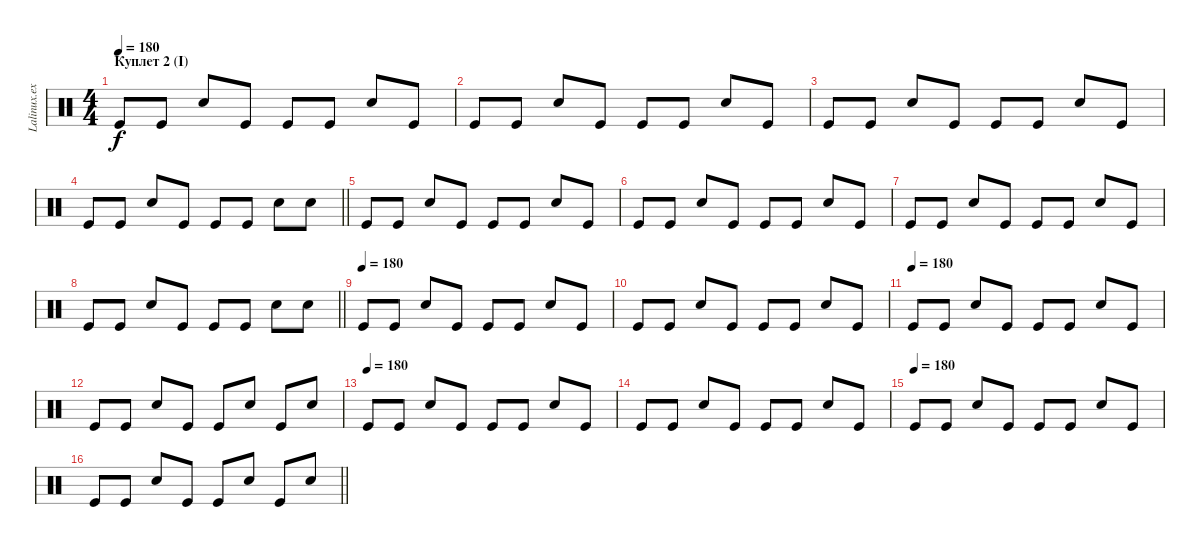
\track ("Lalinux.exe" "Lalinux.ex") {instrument percussion}
\staff {score}
\articulation defaults
\ts (4 4)
\section ("" "Куплет 2 (I)")
\tempo 180
\clef neutral
\ks c "Kick (hit)".8{dy f} "Kick (hit)".8 "Electric Snare (hit)".8 "Kick (hit)".8 "Kick (hit)".8 "Kick (hit)".8 "Electric Snare (hit)".8 "Kick (hit)".8
|
"Kick (hit)".8 "Kick (hit)".8 "Electric Snare (hit)".8 "Kick (hit)".8 "Kick (hit)".8 "Kick (hit)".8 "Electric Snare (hit)".8 "Kick (hit)".8 |
"Kick (hit)".8 "Kick (hit)".8 "Electric Snare (hit)".8 "Kick (hit)".8 "Kick (hit)".8 "Kick (hit)".8 "Electric Snare (hit)".8 "Kick (hit)".8 |
\barLineRight lightlight "Kick (hit)".8 "Kick (hit)".8 "Electric Snare (hit)".8 "Kick (hit)".8 "Kick (hit)".8 "Kick (hit)".8 "Electric Snare (hit)".8 "Electric Snare (hit)".8
|
"Kick (hit)".8 "Kick (hit)".8 "Electric Snare (hit)".8 "Kick (hit)".8 "Kick (hit)".8 "Kick (hit)".8 "Electric Snare (hit)".8 "Kick (hit)".8 |
"Kick (hit)".8 "Kick (hit)".8 "Electric Snare (hit)".8 "Kick (hit)".8 "Kick (hit)".8 "Kick (hit)".8 "Electric Snare (hit)".8 "Kick (hit)".8 |
"Kick (hit)".8 "Kick (hit)".8 "Electric Snare (hit)".8 "Kick (hit)".8 "Kick (hit)".8 "Kick (hit)".8 "Electric Snare (hit)".8 "Kick (hit)".8 |
\barLineRight lightlight "Kick (hit)".8 "Kick (hit)".8 "Electric Snare (hit)".8 "Kick (hit)".8 "Kick (hit)".8 "Kick (hit)".8 "Electric Snare (hit)".8 "Electric Snare (hit)".8
|
\section ("" "")
\tempo (180)
"Kick (hit)".8 "Kick (hit)".8 "Electric Snare (hit)".8 "Kick (hit)".8 "Kick (hit)".8 "Kick (hit)".8 "Electric Snare (hit)".8 "Kick (hit)".8 |
"Kick (hit)".8 "Kick (hit)".8 "Electric Snare (hit)".8 "Kick (hit)".8 "Kick (hit)".8 "Kick (hit)".8 "Electric Snare (hit)".8 "Kick (hit)".8 |
\tempo (180)
"Kick (hit)".8 "Kick (hit)".8 "Electric Snare (hit)".8 "Kick (hit)".8 "Kick (hit)".8 "Kick (hit)".8 "Electric Snare (hit)".8 "Kick (hit)".8 |
"Kick (hit)".8 "Kick (hit)".8 "Electric Snare (hit)".8 "Kick (hit)".8 "Kick (hit)".8 "Electric Snare (hit)".8 "Kick (hit)".8 "Electric Snare (hit)".8 |
\tempo (180)
"Kick (hit)".8 "Kick (hit)".8 "Electric Snare (hit)".8 "Kick (hit)".8 "Kick (hit)".8 "Kick (hit)".8 "Electric Snare (hit)".8 "Kick (hit)".8 |
"Kick (hit)".8 "Kick (hit)".8 "Electric Snare (hit)".8 "Kick (hit)".8 "Kick (hit)".8 "Kick (hit)".8 "Electric Snare (hit)".8 "Kick (hit)".8 |
\tempo (180)
"Kick (hit)".8 "Kick (hit)".8 "Electric Snare (hit)".8 "Kick (hit)".8 "Kick (hit)".8 "Kick (hit)".8 "Electric Snare (hit)".8 "Kick (hit)".8 |
\barLineRight lightlight "Kick (hit)".8 "Kick (hit)".8 "Electric Snare (hit)".8 "Kick (hit)".8 "Kick (hit)".8 "Electric Snare (hit)".8 "Kick (hit)".8 "Electric Snare (hit)".8
